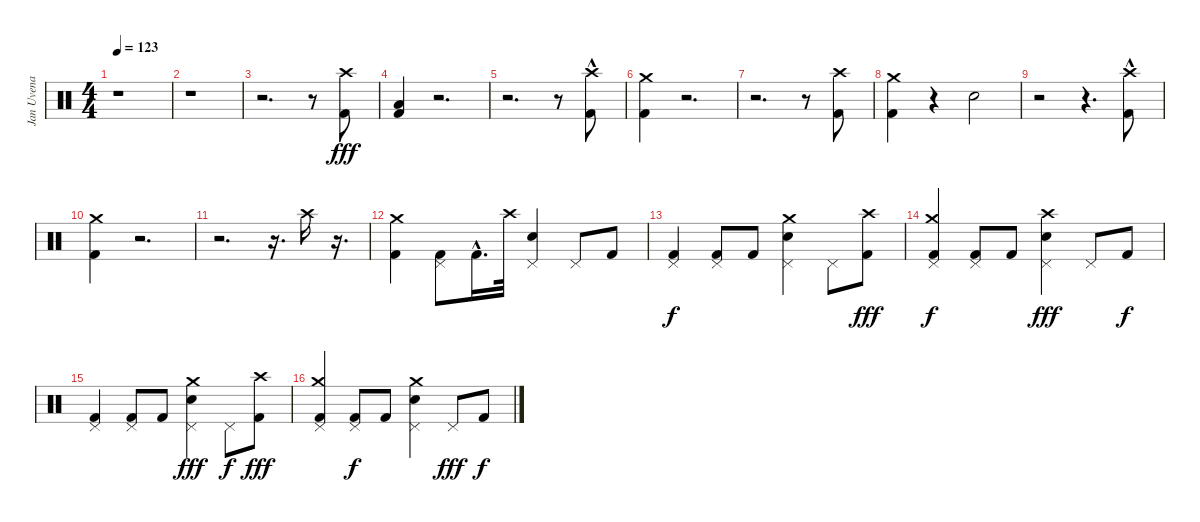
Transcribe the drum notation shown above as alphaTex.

\track ("Jan Uvena" "Jan Uvena") {instrument percussion}
\staff {score}
\articulation defaults
\ts (4 4)
\tempo 123
\clef neutral
\ks c
r.1{dy fff} |
r.1 |
r.2{d} r.8 ("Crash high (hit)" "Kick (hit) 2").8 |
("Low Tom (hit)" "Kick (hit) 2").4 r.2{d} |
r.2{d} r.8 ("Crash high (hit)"{hac} "Kick (hit) 2").8 |
("Crash medium (hit)" "Kick (hit) 2").4 r.2{d} |
r.2{d} r.8 ("Crash high (hit)" "Kick (hit) 2").8 |
("Crash medium (hit)" "Kick (hit) 2").4 r.4 "Snare (hit) 2".2 |
r.2 r.4{d} ("Crash high (hit)"{hac} "Kick (hit) 2").8 |
("Crash medium (hit)" "Kick (hit) 2").4 r.2{d} |
r.2{d} r.16{d} "Crash high (hit)".16 r.16{d} |
("Crash medium (hit)" "Kick (hit) 2").4 ("Pedal Hi-Hat (hit)" "Kick (hit) 2").8 "Kick (hit) 2"{hac}.16{d} "Crash high (hit)".32 ("Pedal Hi-Hat (hit)" "Snare (hit) 2").4 "Pedal Hi-Hat (hit)".8 "Kick (hit) 2".8 |
("Pedal Hi-Hat (hit)" "Kick (hit) 2").4{dy f} ("Pedal Hi-Hat (hit)" "Kick (hit) 2").8 "Kick (hit) 2".8 ("Crash medium (hit)" "Pedal Hi-Hat (hit)" "Snare (hit) 2").4 "Pedal Hi-Hat (hit)".8 ("Crash high (hit)" "Kick (hit) 2").8{dy fff} |
("Crash medium (hit)" "Pedal Hi-Hat (hit)" "Kick (hit) 2").4{dy f} ("Pedal Hi-Hat (hit)" "Kick (hit) 2").8 "Kick (hit) 2".8 ("Crash high (hit)" "Pedal Hi-Hat (hit)" "Snare (hit) 2").4{dy fff} "Pedal Hi-Hat (hit)".8 "Kick (hit) 2".8{dy f} |
("Pedal Hi-Hat (hit)" "Kick (hit) 2").4 ("Pedal Hi-Hat (hit)" "Kick (hit) 2").8 "Kick (hit) 2".8 ("Crash medium (hit)" "Pedal Hi-Hat (hit)" "Snare (hit) 2").4{dy fff} "Pedal Hi-Hat (hit)".8{dy f} ("Crash high (hit)" "Kick (hit) 2").8{dy fff} |
("Crash medium (hit)" "Pedal Hi-Hat (hit)" "Kick (hit) 2").4 ("Pedal Hi-Hat (hit)" "Kick (hit) 2").8{dy f} "Kick (hit) 2".8 ("Crash medium (hit)" "Pedal Hi-Hat (hit)" "Snare (hit) 2").4 "Pedal Hi-Hat (hit)".8{dy fff} "Kick (hit) 2".8{dy f}
